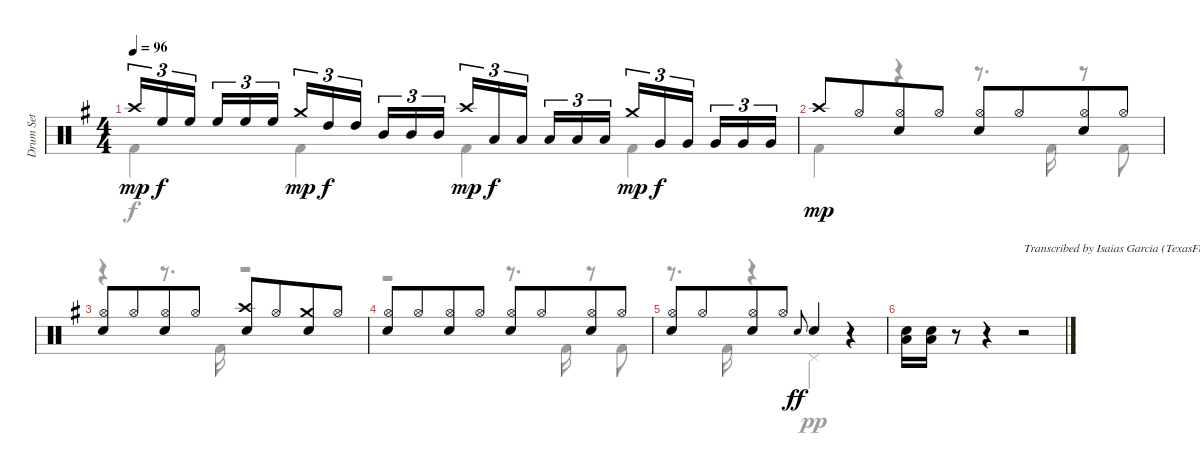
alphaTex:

\track ("Drum Set" "Drum Set") {instrument percussion}
\staff {score}
\articulation defaults
\voice
\ts (4 4)
\tempo 96
\clef neutral
\ks g "Crash high (hit)".16{tu (3 2) dy mp} "High Floor Tom (hit)".16{tu (3 2) dy f} "High Floor Tom (hit)".16{tu (3 2) beam splitsecondary} "High Floor Tom (hit)".16{tu (3 2)} "High Floor Tom (hit)".16{tu (3 2)} "High Floor Tom (hit)".16{tu (3 2)} "Crash medium (hit)".16{tu (3 2) dy mp} "High Tom (hit)".16{tu (3 2) dy f} "High Tom (hit)".16{tu (3 2) beam splitsecondary} "Mid Tom (hit)".16{tu (3 2)} "Mid Tom (hit)".16{tu (3 2)} "Mid Tom (hit)".16{tu (3 2)} "Crash high (hit)".16{tu (3 2) dy mp} "Low Tom (hit)".16{tu (3 2) dy f} "Low Tom (hit)".16{tu (3 2) beam splitsecondary} "Low Tom (hit)".16{tu (3 2)} "Low Tom (hit)".16{tu (3 2)} "Low Tom (hit)".16{tu (3 2)} "Crash medium (hit)".16{tu (3 2) dy mp} "Very Low Tom (hit)".16{tu (3 2) dy f} "Very Low Tom (hit)".16{tu (3 2) beam splitsecondary} "Very Low Tom (hit)".16{tu (3 2)} "Very Low Tom (hit)".16{tu (3 2)} "Very Low Tom (hit)".16{tu (3 2)}
|
"Crash high (hit)".8{dy mp} "Hi-Hat (open)".8{beam merge} ("Hi-Hat (open)" "Electric Snare (hit)").8 "Hi-Hat (open)".8{beam split} ("Hi-Hat (open)" "Electric Snare (hit)").8 "Hi-Hat (open)".8{beam merge} ("Hi-Hat (open)" "Electric Snare (hit)").8 "Hi-Hat (open)".8 |
("Hi-Hat (open)" "Electric Snare (hit)").8 "Hi-Hat (open)".8{beam merge} ("Electric Snare (hit)" "Hi-Hat (open)").8 "Hi-Hat (open)".8{beam split} ("Crash high (hit)" "Electric Snare (hit)").8 "Hi-Hat (open)".8{beam merge} ("Crash medium (hit)" "Electric Snare (hit)").8 "Hi-Hat (open)".8 |
("Hi-Hat (open)" "Electric Snare (hit)").8 "Hi-Hat (open)".8{beam merge} ("Hi-Hat (open)" "Electric Snare (hit)").8 "Hi-Hat (open)".8{beam split} ("Hi-Hat (open)" "Electric Snare (hit)").8 "Hi-Hat (open)".8{beam merge} ("Hi-Hat (open)" "Electric Snare (hit)").8 "Hi-Hat (open)".8 |
("Hi-Hat (open)" "Electric Snare (hit)").8 "Hi-Hat (open)".8{beam merge} ("Hi-Hat (open)" "Electric Snare (hit)").8 "Hi-Hat (open)".8 "Electric Snare (hit)".8{gr onbeat dy ff} "Electric Snare (hit)".4 r.4 |
("Electric Snare (hit)" "Low Tom (hit)").16 ("Electric Snare (hit)" "Low Tom (hit)").16 r.8 r.4 r.2{txt "Transcribed by Isaias Garcia (TexasFury)"}
\voice
\clef neutral
\ottava regular
\simile none
\ks g "Kick (hit) 2".4{dy f} "Kick (hit) 2".4 "Kick (hit) 2".4 "Kick (hit) 2".4
|
"Kick (hit) 2".4 r.4 r.8{d} "Kick (hit) 2".16 r.8 "Kick (hit) 2".8 |
r.4 r.8{d} "Kick (hit) 2".16 r.2 |
r.2 r.8{d} "Kick (hit) 2".16 r.8 "Kick (hit) 2".8 |
r.8{d} "Kick (hit) 2".16 r.4 "Pedal Hi-Hat (hit)".4{dy pp} r.4 |
